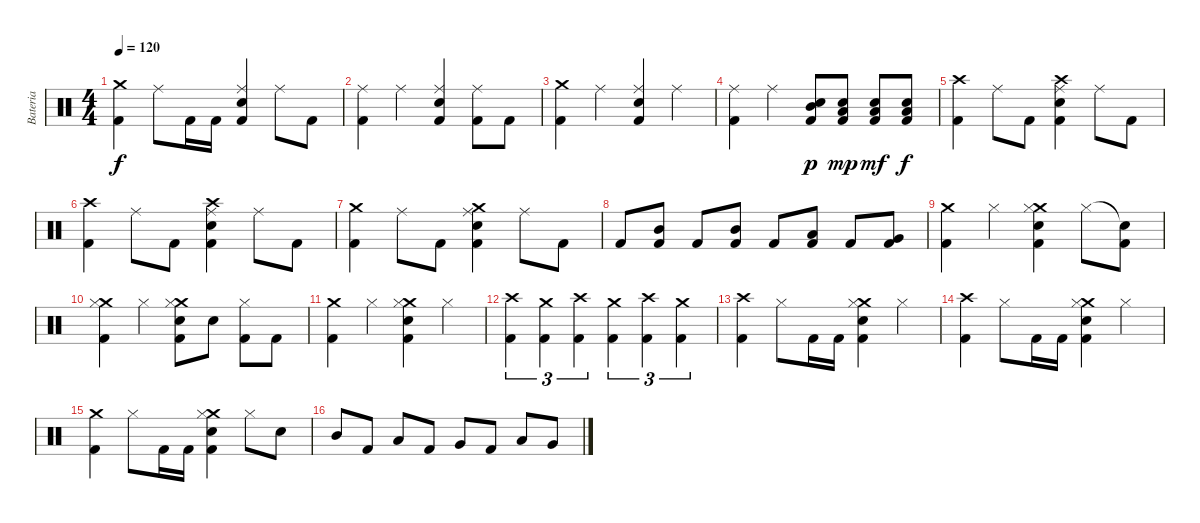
\track ("Bateria" "Bateria") {instrument percussion}
\staff {score}
\articulation defaults
\ts (4 4)
\tempo 120
\clef neutral
\ks c
("Crash medium (hit)" "Kick (hit) 2").4{dy f} "Ride (middle)".8 "Kick (hit) 2".16 "Kick (hit) 2".16 ("Ride (middle)" "Electric Snare (hit)" "Kick (hit) 2").4 "Ride (middle)".8 "Kick (hit) 2".8 |
("Ride (middle)" "Kick (hit) 2").4 "Ride (middle)".4 ("Ride (middle)" "Electric Snare (hit)" "Kick (hit) 2").4 ("Ride (middle)" "Kick (hit) 2").8 "Kick (hit) 2".8 |
("Crash medium (hit)" "Kick (hit) 2").4 "Ride (middle)".4 ("Ride (middle)" "Electric Snare (hit)" "Kick (hit) 2").4 "Ride (middle)".4 |
("Ride (middle)" "Kick (hit) 2").4 "Ride (middle)".4 ("Mid Tom (hit)" "Electric Snare (hit)" "Kick (hit) 2").8{dy p} ("Low Tom (hit)" "Electric Snare (hit)" "Kick (hit) 2").8{dy mp} ("Low Tom (hit)" "Electric Snare (hit)" "Kick (hit) 2").8{dy mf} ("Low Tom (hit)" "Electric Snare (hit)" "Kick (hit) 2").8{dy f} |
("Crash high (hit)" "Kick (hit) 2").4 "Ride (middle)".8 "Kick (hit) 2".8 ("Crash high (hit)" "Ride (middle)" "Electric Snare (hit)" "Kick (hit) 2").4 "Ride (middle)".8 "Kick (hit) 2".8 |
("Crash high (hit)" "Kick (hit) 2").4 "Ride (middle)".8 "Kick (hit) 2".8 ("Crash high (hit)" "Ride (middle)" "Electric Snare (hit)" "Kick (hit) 2").4 "Ride (middle)".8 "Kick (hit) 2".8 |
("Crash medium (hit)" "Kick (hit) 2").4 "Ride (middle)".8 "Kick (hit) 2".8 ("Crash medium (hit)" "Ride (middle)" "Electric Snare (hit)" "Kick (hit) 2").4 "Ride (middle)".8 "Kick (hit) 2".8 |
"Kick (hit) 2".8 ("Mid Tom (hit)" "Kick (hit) 2").8 "Kick (hit) 2".8 ("Mid Tom (hit)" "Kick (hit) 2").8 "Kick (hit) 2".8 ("Low Tom (hit)" "Kick (hit) 2").8 "Kick (hit) 2".8 ("Very Low Tom (hit)" "Kick (hit) 2").8 |
("Crash medium (hit)" "Kick (hit) 2").4 "Hi-Hat (closed)".4 ("Crash medium (hit)" "Hi-Hat (closed)" "Electric Snare (hit)" "Kick (hit) 2").4 "Hi-Hat (closed)".8 ("Snare (hit)"{t} "Kick (hit) 2").8 |
("Crash medium (hit)" "Hi-Hat (closed)" "Kick (hit) 2").4 "Hi-Hat (closed)".4 ("Crash medium (hit)" "Hi-Hat (closed)" "Electric Snare (hit)" "Kick (hit) 2").8 "Electric Snare (hit)".8 ("Hi-Hat (closed)" "Kick (hit) 2").8 "Kick (hit) 2".8 |
("Crash medium (hit)" "Kick (hit) 2").4 "Hi-Hat (closed)".4 ("Crash medium (hit)" "Hi-Hat (closed)" "Electric Snare (hit)" "Kick (hit) 2").4 "Hi-Hat (closed)".4 |
("Crash high (hit)" "Kick (hit) 2").4{tu (3 2)} ("Crash medium (hit)" "Kick (hit) 2").4{tu (3 2)} ("Crash high (hit)" "Kick (hit) 2").4{tu (3 2)} ("Crash medium (hit)" "Kick (hit) 2").4{tu (3 2)} ("Crash high (hit)" "Kick (hit) 2").4{tu (3 2)} ("Crash medium (hit)" "Kick (hit) 2").4{tu (3 2)} |
("Crash high (hit)" "Kick (hit) 2").4 "Hi-Hat (closed)".8 "Kick (hit) 2".16 "Kick (hit) 2".16 ("Crash medium (hit)" "Hi-Hat (closed)" "Electric Snare (hit)" "Kick (hit) 2").4 "Hi-Hat (closed)".4 |
("Crash high (hit)" "Kick (hit) 2").4 "Hi-Hat (closed)".8 "Kick (hit) 2".16 "Kick (hit) 2".16 ("Crash medium (hit)" "Hi-Hat (closed)" "Electric Snare (hit)" "Kick (hit) 2").4 "Hi-Hat (closed)".4 |
("Crash medium (hit)" "Kick (hit) 2").4 "Hi-Hat (closed)".8 "Kick (hit) 2".16 "Kick (hit) 2".16 ("Crash medium (hit)" "Hi-Hat (closed)" "Electric Snare (hit)" "Kick (hit) 2").4 "Hi-Hat (closed)".8 "Electric Snare (hit)".8 |
"Mid Tom (hit)".8 "Kick (hit) 2".8 "Low Tom (hit)".8 "Kick (hit) 2".8 "Very Low Tom (hit)".8 "Kick (hit) 2".8 "Low Tom (hit)".8 "Very Low Tom (hit)".8
